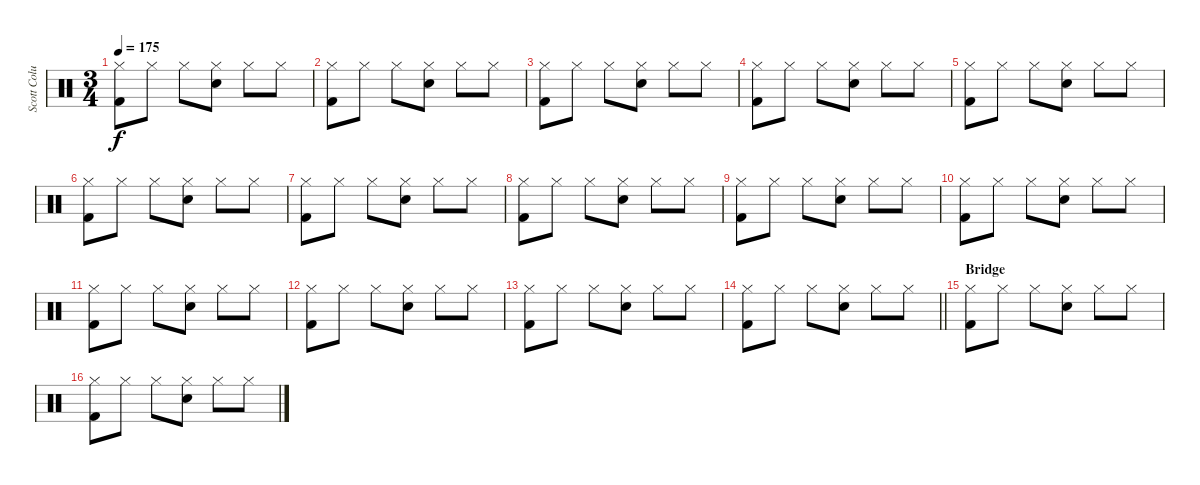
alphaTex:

\track ("Scott Columbus" "Scott Colu") {instrument percussion}
\staff {score}
\articulation defaults
\ts (3 4)
\tempo 175
\clef neutral
\ks c
("Kick (hit) 2" "Hi-Hat (closed)").8{dy f} "Hi-Hat (closed)".8 "Hi-Hat (closed)".8 ("Snare (hit) 2" "Hi-Hat (closed)").8 "Hi-Hat (closed)".8 "Hi-Hat (closed)".8 |
("Kick (hit) 2" "Hi-Hat (closed)").8 "Hi-Hat (closed)".8 "Hi-Hat (closed)".8 ("Snare (hit) 2" "Hi-Hat (closed)").8 "Hi-Hat (closed)".8 "Hi-Hat (closed)".8 |
("Kick (hit) 2" "Hi-Hat (closed)").8 "Hi-Hat (closed)".8 "Hi-Hat (closed)".8 ("Snare (hit) 2" "Hi-Hat (closed)").8 "Hi-Hat (closed)".8 "Hi-Hat (closed)".8 |
("Kick (hit) 2" "Hi-Hat (closed)").8 "Hi-Hat (closed)".8 "Hi-Hat (closed)".8 ("Snare (hit) 2" "Hi-Hat (closed)").8 "Hi-Hat (closed)".8 "Hi-Hat (closed)".8 |
("Kick (hit) 2" "Hi-Hat (closed)").8 "Hi-Hat (closed)".8 "Hi-Hat (closed)".8 ("Snare (hit) 2" "Hi-Hat (closed)").8 "Hi-Hat (closed)".8 "Hi-Hat (closed)".8 |
("Kick (hit) 2" "Hi-Hat (closed)").8 "Hi-Hat (closed)".8 "Hi-Hat (closed)".8 ("Snare (hit) 2" "Hi-Hat (closed)").8 "Hi-Hat (closed)".8 "Hi-Hat (closed)".8 |
("Kick (hit) 2" "Hi-Hat (closed)").8 "Hi-Hat (closed)".8 "Hi-Hat (closed)".8 ("Snare (hit) 2" "Hi-Hat (closed)").8 "Hi-Hat (closed)".8 "Hi-Hat (closed)".8 |
("Kick (hit) 2" "Hi-Hat (closed)").8 "Hi-Hat (closed)".8 "Hi-Hat (closed)".8 ("Snare (hit) 2" "Hi-Hat (closed)").8 "Hi-Hat (closed)".8 "Hi-Hat (closed)".8 |
("Kick (hit) 2" "Hi-Hat (closed)").8 "Hi-Hat (closed)".8 "Hi-Hat (closed)".8 ("Snare (hit) 2" "Hi-Hat (closed)").8 "Hi-Hat (closed)".8 "Hi-Hat (closed)".8 |
("Kick (hit) 2" "Hi-Hat (closed)").8 "Hi-Hat (closed)".8 "Hi-Hat (closed)".8 ("Snare (hit) 2" "Hi-Hat (closed)").8 "Hi-Hat (closed)".8 "Hi-Hat (closed)".8 |
("Kick (hit) 2" "Hi-Hat (closed)").8 "Hi-Hat (closed)".8 "Hi-Hat (closed)".8 ("Snare (hit) 2" "Hi-Hat (closed)").8 "Hi-Hat (closed)".8 "Hi-Hat (closed)".8 |
("Kick (hit) 2" "Hi-Hat (closed)").8 "Hi-Hat (closed)".8 "Hi-Hat (closed)".8 ("Snare (hit) 2" "Hi-Hat (closed)").8 "Hi-Hat (closed)".8 "Hi-Hat (closed)".8 |
("Kick (hit) 2" "Hi-Hat (closed)").8 "Hi-Hat (closed)".8 "Hi-Hat (closed)".8 ("Snare (hit) 2" "Hi-Hat (closed)").8 "Hi-Hat (closed)".8 "Hi-Hat (closed)".8 |
\barLineRight lightlight
("Kick (hit) 2" "Hi-Hat (closed)").8 "Hi-Hat (closed)".8 "Hi-Hat (closed)".8 ("Snare (hit) 2" "Hi-Hat (closed)").8 "Hi-Hat (closed)".8 "Hi-Hat (closed)".8 |
\section ("" "Bridge")
("Kick (hit) 2" "Hi-Hat (closed)").8 "Hi-Hat (closed)".8 "Hi-Hat (closed)".8 ("Snare (hit) 2" "Hi-Hat (closed)").8 "Hi-Hat (closed)".8 "Hi-Hat (closed)".8 |
("Kick (hit) 2" "Hi-Hat (closed)").8 "Hi-Hat (closed)".8 "Hi-Hat (closed)".8 ("Snare (hit) 2" "Hi-Hat (closed)").8 "Hi-Hat (closed)".8 "Hi-Hat (closed)".8
